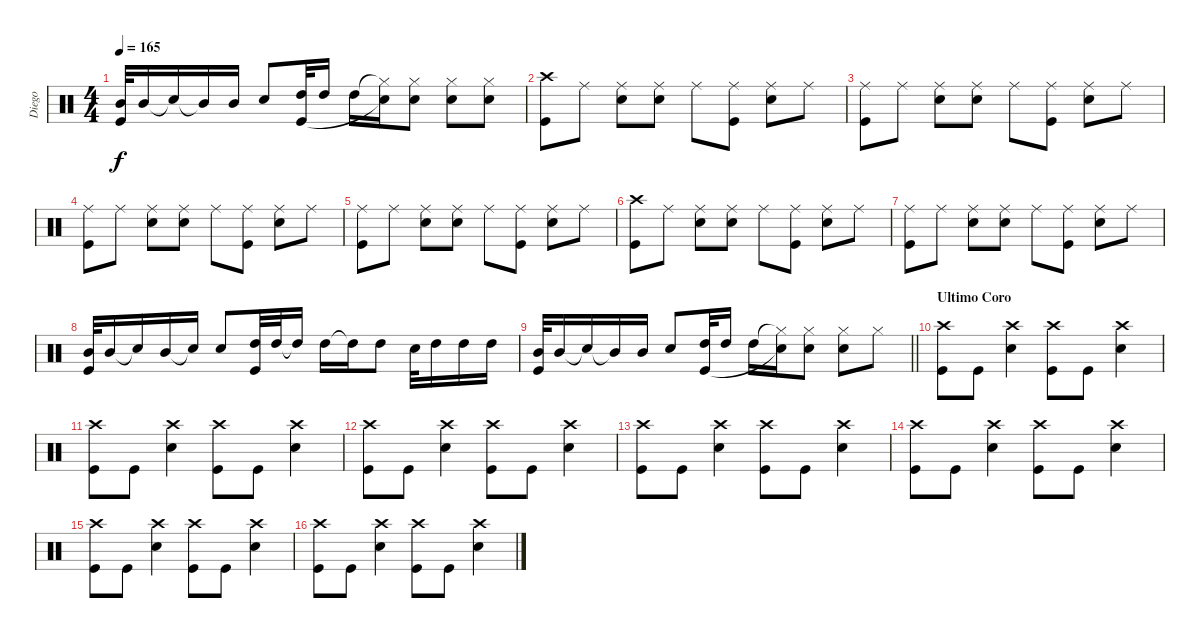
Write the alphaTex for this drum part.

\track ("Diego" "Diego") {instrument percussion}
\staff {score}
\articulation defaults
\ts (4 4)
\tempo 165
\clef neutral
\ks c
("Mid Tom (hit)" "Kick (hit)").32{dy f} "Mid Tom (hit)".16 "Snare (hit)"{t}.16 "Mid Tom (hit)"{t}.16 "Mid Tom (hit)".16 "Snare (hit) 2".8 ("High Tom (hit)" "Kick (hit)").32 "High Tom (hit)".16 "High Tom (hit)".16 ("Hi-Hat (closed)"{t} "Snare (hit) 2"{t}).16 ("Hi-Hat (closed)" "Snare (hit) 2").8 ("Hi-Hat (closed)" "Snare (hit) 2").8 ("Hi-Hat (closed)" "Snare (hit) 2").8 |
("Crash high (hit)" "Kick (hit)").8 "Ride (middle)".8 ("Ride (middle)" "Snare (hit) 2").8 ("Ride (middle)" "Snare (hit) 2").8 "Ride (middle)".8 ("Ride (middle)" "Kick (hit)").8 ("Ride (middle)" "Snare (hit) 2").8 "Ride (middle)".8 |
("Ride (middle)" "Kick (hit)").8 "Ride (middle)".8 ("Ride (middle)" "Snare (hit) 2").8 ("Ride (middle)" "Snare (hit) 2").8 "Ride (middle)".8 ("Ride (middle)" "Kick (hit)").8 ("Ride (middle)" "Snare (hit) 2").8 "Ride (middle)".8 |
("Ride (middle)" "Kick (hit)").8 "Ride (middle)".8 ("Ride (middle)" "Snare (hit) 2").8 ("Ride (middle)" "Snare (hit) 2").8 "Ride (middle)".8 ("Ride (middle)" "Kick (hit)").8 ("Ride (middle)" "Snare (hit) 2").8 "Ride (middle)".8 |
("Ride (middle)" "Kick (hit)").8 "Ride (middle)".8 ("Ride (middle)" "Snare (hit) 2").8 ("Ride (middle)" "Snare (hit) 2").8 "Ride (middle)".8 ("Ride (middle)" "Kick (hit)").8 ("Ride (middle)" "Snare (hit) 2").8 "Ride (middle)".8 |
("Crash high (hit)" "Kick (hit)").8 "Ride (middle)".8 ("Ride (middle)" "Snare (hit) 2").8 ("Ride (middle)" "Snare (hit) 2").8 "Ride (middle)".8 ("Ride (middle)" "Kick (hit)").8 ("Ride (middle)" "Snare (hit) 2").8 "Ride (middle)".8 |
("Ride (middle)" "Kick (hit)").8 "Ride (middle)".8 ("Ride (middle)" "Snare (hit) 2").8 ("Ride (middle)" "Snare (hit) 2").8 "Ride (middle)".8 ("Ride (middle)" "Kick (hit)").8 ("Ride (middle)" "Snare (hit) 2").8 "Ride (middle)".8 |
("Mid Tom (hit)" "Kick (hit)").32 "Mid Tom (hit)".16 "Snare (hit)"{t}.16 "Mid Tom (hit)".16 "Snare (hit)"{t}.16 "Snare (hit) 2".8 ("High Tom (hit)" "Kick (hit)").32 "High Tom (hit)".32 "High Tom (hit)"{t}.16 "High Tom (hit)".16 "High Tom (hit)"{t}.16 "High Tom (hit)".8 "Snare (hit) 2".32 "High Tom (hit)".16 "High Tom (hit)".16 "High Tom (hit)".16 |
\barLineRight lightlight
("Mid Tom (hit)" "Kick (hit)").32 "Mid Tom (hit)".16 "Snare (hit)"{t}.16 "Mid Tom (hit)"{t}.16 "Mid Tom (hit)".16 "Snare (hit) 2".8 ("High Tom (hit)" "Kick (hit)").32 "High Tom (hit)".16 "High Tom (hit)".16 ("Hi-Hat (closed)"{t} "Snare (hit) 2"{t}).16 ("Hi-Hat (closed)" "Snare (hit) 2").8 ("Hi-Hat (closed)" "Snare (hit) 2").8 "Hi-Hat (closed)".8 |
\section ("" "Ultimo Coro")
("Crash high (hit)" "Kick (hit)").8 "Kick (hit)".8 ("Crash high (hit)" "Snare (hit) 2").4 ("Crash high (hit)" "Kick (hit)").8 "Kick (hit)".8 ("Crash high (hit)" "Snare (hit) 2").4 |
("Crash high (hit)" "Kick (hit)").8 "Kick (hit)".8 ("Crash high (hit)" "Snare (hit) 2").4 ("Crash high (hit)" "Kick (hit)").8 "Kick (hit)".8 ("Crash high (hit)" "Snare (hit) 2").4 |
("Crash high (hit)" "Kick (hit)").8 "Kick (hit)".8 ("Crash high (hit)" "Snare (hit) 2").4 ("Crash high (hit)" "Kick (hit)").8 "Kick (hit)".8 ("Crash high (hit)" "Snare (hit) 2").4 |
("Crash high (hit)" "Kick (hit)").8 "Kick (hit)".8 ("Crash high (hit)" "Snare (hit) 2").4 ("Crash high (hit)" "Kick (hit)").8 "Kick (hit)".8 ("Crash high (hit)" "Snare (hit) 2").4 |
("Crash high (hit)" "Kick (hit)").8 "Kick (hit)".8 ("Crash high (hit)" "Snare (hit) 2").4 ("Crash high (hit)" "Kick (hit)").8 "Kick (hit)".8 ("Crash high (hit)" "Snare (hit) 2").4 |
("Crash high (hit)" "Kick (hit)").8 "Kick (hit)".8 ("Crash high (hit)" "Snare (hit) 2").4 ("Crash high (hit)" "Kick (hit)").8 "Kick (hit)".8 ("Crash high (hit)" "Snare (hit) 2").4 |
("Crash high (hit)" "Kick (hit)").8 "Kick (hit)".8 ("Crash high (hit)" "Snare (hit) 2").4 ("Crash high (hit)" "Kick (hit)").8 "Kick (hit)".8 ("Crash high (hit)" "Snare (hit) 2").4
